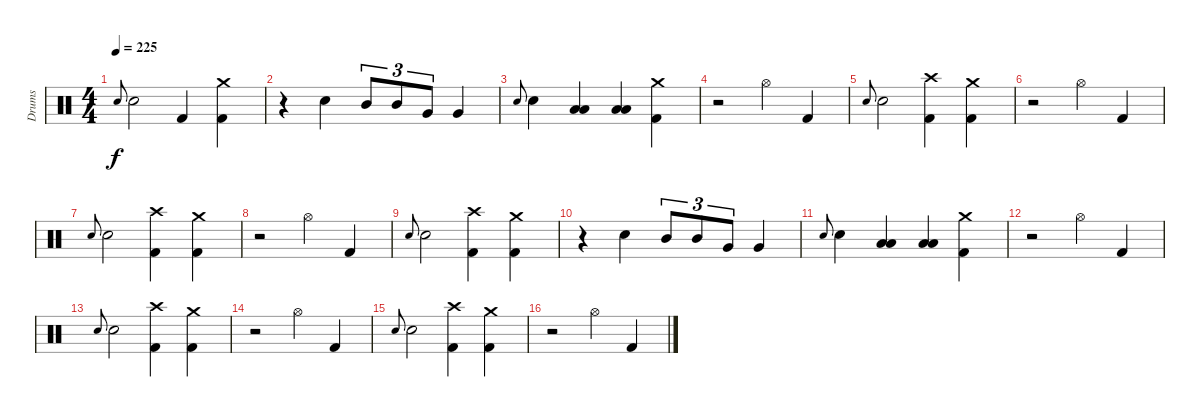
\track ("Drums" "Drums") {instrument percussion}
\staff {score}
\articulation defaults
\ts (4 4)
\tempo 225
\clef neutral
\ks c "Electric Snare (hit)".8{gr onbeat dy f} "Electric Snare (hit)".2 "Kick (hit) 2".4
("Crash medium (hit)" "Kick (hit) 2").4 |
r.4 "Electric Snare (hit)".4 "Mid Tom (hit)".8{tu (3 2)} "Mid Tom (hit)".8{tu (3 2)} "Very Low Tom (hit)".8{tu (3 2)} "Very Low Tom (hit)".4 |
"Electric Snare (hit)".8{gr onbeat} "Electric Snare (hit)".4 ("Low Tom (hit)" "Low Floor Tom (hit)").4 ("Low Floor Tom (hit)" "Low Tom (hit)").4 ("Kick (hit) 2" "Crash medium (hit)").4 |
r.2 "Hi-Hat (open)".4 "Kick (hit) 2".4 |
"Electric Snare (hit)".8{gr onbeat} "Electric Snare (hit)".2 ("Kick (hit) 2" "Crash high (hit)").4 ("Kick (hit) 2" "Crash medium (hit)").4 |
r.2 "Hi-Hat (open)".4 "Kick (hit) 2".4 |
"Electric Snare (hit)".8{gr onbeat} "Electric Snare (hit)".2 ("Kick (hit) 2" "Crash high (hit)").4 ("Kick (hit) 2" "Crash medium (hit)").4 |
r.2 "Hi-Hat (open)".4 "Kick (hit) 2".4 |
"Electric Snare (hit)".8{gr onbeat} "Electric Snare (hit)".2 ("Kick (hit) 2" "Crash high (hit)").4 ("Kick (hit) 2" "Crash medium (hit)").4 |
r.4 "Electric Snare (hit)".4 "Mid Tom (hit)".8{tu (3 2)} "Mid Tom (hit)".8{tu (3 2)} "Very Low Tom (hit)".8{tu (3 2)} "Very Low Tom (hit)".4 |
"Electric Snare (hit)".8{gr onbeat} "Electric Snare (hit)".4 ("Low Tom (hit)" "Low Floor Tom (hit)").4 ("Low Floor Tom (hit)" "Low Tom (hit)").4 ("Kick (hit) 2" "Crash medium (hit)").4 |
r.2 "Hi-Hat (open)".4 "Kick (hit) 2".4 |
"Electric Snare (hit)".8{gr onbeat} "Electric Snare (hit)".2 ("Kick (hit) 2" "Crash high (hit)").4 ("Kick (hit) 2" "Crash medium (hit)").4 |
r.2 "Hi-Hat (open)".4 "Kick (hit) 2".4 |
"Electric Snare (hit)".8{gr onbeat} "Electric Snare (hit)".2 ("Kick (hit) 2" "Crash high (hit)").4 ("Kick (hit) 2" "Crash medium (hit)").4 |
r.2 "Hi-Hat (open)".4 "Kick (hit) 2".4
